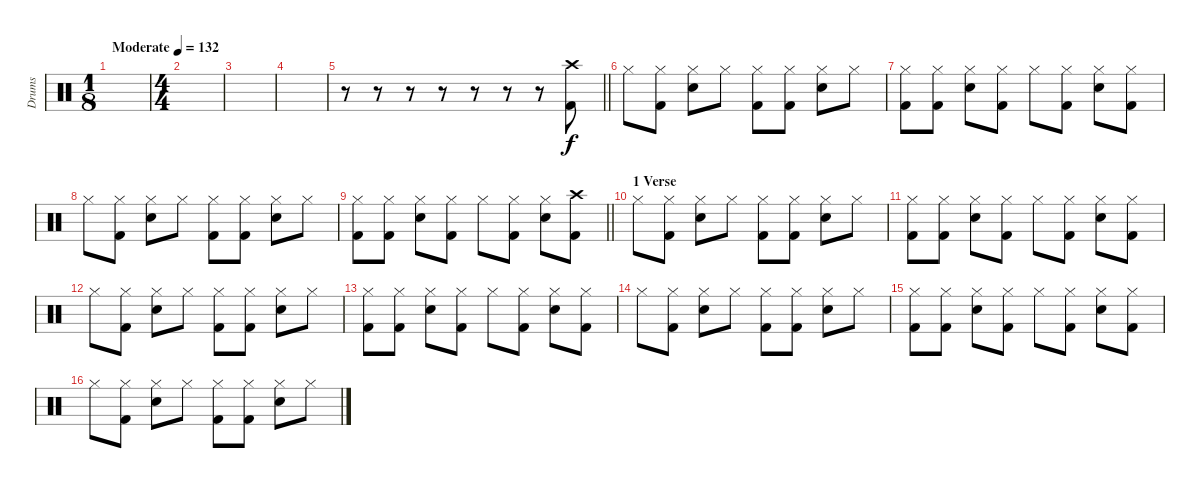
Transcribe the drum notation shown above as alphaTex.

\track ("Drums" "Drums") {instrument percussion}
\staff {score}
\articulation defaults
\ts (1 8)
\tempo (132 "Moderate")
\clef neutral
\ks c
|
\ts (4 4)
|
|
|
\barLineRight lightlight
r.8 r.8 r.8 r.8 r.8 r.8 r.8 ("Crash high (hit)" "Kick (hit) 2").8 |
\section ("" "")
"Hi-Hat (closed)".8 ("Hi-Hat (closed)" "Kick (hit) 2").8 ("Hi-Hat (closed)" "Electric Snare (hit)").8 "Hi-Hat (closed)".8 ("Hi-Hat (closed)" "Kick (hit) 2").8 ("Hi-Hat (closed)" "Kick (hit) 2").8 ("Hi-Hat (closed)" "Electric Snare (hit)").8 "Hi-Hat (closed)".8 |
("Hi-Hat (closed)" "Kick (hit) 2").8 ("Hi-Hat (closed)" "Kick (hit) 2").8 ("Hi-Hat (closed)" "Electric Snare (hit)").8 ("Hi-Hat (closed)" "Kick (hit) 2").8 "Hi-Hat (closed)".8 ("Hi-Hat (closed)" "Kick (hit) 2").8 ("Hi-Hat (closed)" "Electric Snare (hit)").8 ("Hi-Hat (closed)" "Kick (hit) 2").8 |
"Hi-Hat (closed)".8 ("Hi-Hat (closed)" "Kick (hit) 2").8 ("Hi-Hat (closed)" "Electric Snare (hit)").8 "Hi-Hat (closed)".8 ("Hi-Hat (closed)" "Kick (hit) 2").8 ("Hi-Hat (closed)" "Kick (hit) 2").8 ("Hi-Hat (closed)" "Electric Snare (hit)").8 "Hi-Hat (closed)".8 |
\barLineRight lightlight
("Hi-Hat (closed)" "Kick (hit) 2").8 ("Hi-Hat (closed)" "Kick (hit) 2").8 ("Hi-Hat (closed)" "Electric Snare (hit)").8 ("Hi-Hat (closed)" "Kick (hit) 2").8 "Hi-Hat (closed)".8 ("Hi-Hat (closed)" "Kick (hit) 2").8 ("Hi-Hat (closed)" "Electric Snare (hit)").8 ("Crash high (hit)" "Kick (hit) 2").8 |
\section ("" "1 Verse")
"Hi-Hat (closed)".8 ("Hi-Hat (closed)" "Kick (hit) 2").8 ("Hi-Hat (closed)" "Electric Snare (hit)").8 "Hi-Hat (closed)".8 ("Hi-Hat (closed)" "Kick (hit) 2").8 ("Hi-Hat (closed)" "Kick (hit) 2").8 ("Hi-Hat (closed)" "Electric Snare (hit)").8 "Hi-Hat (closed)".8 |
("Hi-Hat (closed)" "Kick (hit) 2").8 ("Hi-Hat (closed)" "Kick (hit) 2").8 ("Hi-Hat (closed)" "Electric Snare (hit)").8 ("Hi-Hat (closed)" "Kick (hit) 2").8 "Hi-Hat (closed)".8 ("Hi-Hat (closed)" "Kick (hit) 2").8 ("Hi-Hat (closed)" "Electric Snare (hit)").8 ("Hi-Hat (closed)" "Kick (hit) 2").8 |
"Hi-Hat (closed)".8 ("Hi-Hat (closed)" "Kick (hit) 2").8 ("Hi-Hat (closed)" "Electric Snare (hit)").8 "Hi-Hat (closed)".8 ("Hi-Hat (closed)" "Kick (hit) 2").8 ("Hi-Hat (closed)" "Kick (hit) 2").8 ("Hi-Hat (closed)" "Electric Snare (hit)").8 "Hi-Hat (closed)".8 |
("Hi-Hat (closed)" "Kick (hit) 2").8 ("Hi-Hat (closed)" "Kick (hit) 2").8 ("Hi-Hat (closed)" "Electric Snare (hit)").8 ("Hi-Hat (closed)" "Kick (hit) 2").8 "Hi-Hat (closed)".8 ("Hi-Hat (closed)" "Kick (hit) 2").8 ("Hi-Hat (closed)" "Electric Snare (hit)").8 ("Hi-Hat (closed)" "Kick (hit) 2").8 |
"Hi-Hat (closed)".8 ("Hi-Hat (closed)" "Kick (hit) 2").8 ("Hi-Hat (closed)" "Electric Snare (hit)").8 "Hi-Hat (closed)".8 ("Hi-Hat (closed)" "Kick (hit) 2").8 ("Hi-Hat (closed)" "Kick (hit) 2").8 ("Hi-Hat (closed)" "Electric Snare (hit)").8 "Hi-Hat (closed)".8 |
("Hi-Hat (closed)" "Kick (hit) 2").8 ("Hi-Hat (closed)" "Kick (hit) 2").8 ("Hi-Hat (closed)" "Electric Snare (hit)").8 ("Hi-Hat (closed)" "Kick (hit) 2").8 "Hi-Hat (closed)".8 ("Hi-Hat (closed)" "Kick (hit) 2").8 ("Hi-Hat (closed)" "Electric Snare (hit)").8 ("Hi-Hat (closed)" "Kick (hit) 2").8 |
"Hi-Hat (closed)".8 ("Hi-Hat (closed)" "Kick (hit) 2").8 ("Hi-Hat (closed)" "Electric Snare (hit)").8 "Hi-Hat (closed)".8 ("Hi-Hat (closed)" "Kick (hit) 2").8 ("Hi-Hat (closed)" "Kick (hit) 2").8 ("Hi-Hat (closed)" "Electric Snare (hit)").8 "Hi-Hat (closed)".8
